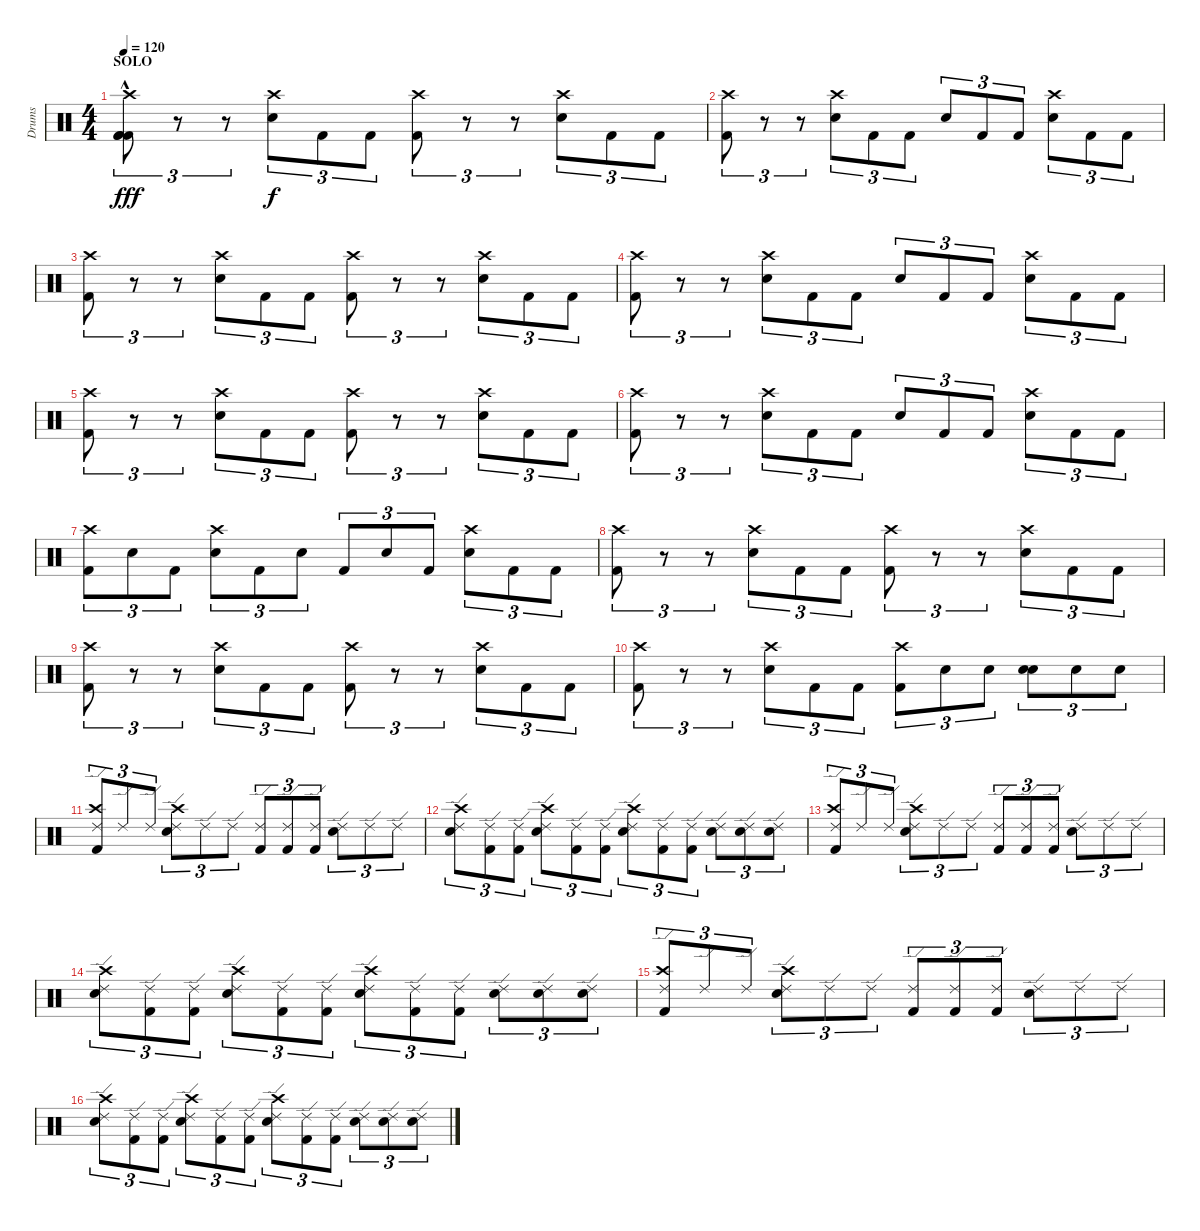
\track ("Drums" "Drums") {instrument percussion}
\staff {score}
\articulation defaults
\ts (4 4)
\section ("" "SOLO")
\tempo 120
\clef neutral
\ks c
("Kick (hit) 2"{hac} "Crash high (hit)"{hac} "Kick (hit) 2"{hac} "Kick (hit) 2"{hac}).8{tu (3 2) dy fff} r.8{tu (3 2)} r.8{tu (3 2)} ("Electric Snare (hit)" "Crash high (hit)").8{tu (3 2) dy f} "Kick (hit) 2".8{tu (3 2)} "Kick (hit) 2".8{tu (3 2)} ("Kick (hit) 2" "Crash high (hit)").8{tu (3 2)} r.8{tu (3 2)} r.8{tu (3 2)} ("Electric Snare (hit)" "Crash high (hit)").8{tu (3 2)} "Kick (hit) 2".8{tu (3 2)} "Kick (hit) 2".8{tu (3 2)} |
("Kick (hit) 2" "Crash high (hit)").8{tu (3 2)} r.8{tu (3 2)} r.8{tu (3 2)} ("Electric Snare (hit)" "Crash high (hit)").8{tu (3 2)} "Kick (hit) 2".8{tu (3 2)} "Kick (hit) 2".8{tu (3 2)} "Electric Snare (hit)".8{tu (3 2)} "Kick (hit) 2".8{tu (3 2)} "Kick (hit) 2".8{tu (3 2)} ("Electric Snare (hit)" "Crash high (hit)").8{tu (3 2)} "Kick (hit) 2".8{tu (3 2)} "Kick (hit) 2".8{tu (3 2)} |
("Kick (hit) 2" "Crash high (hit)").8{tu (3 2)} r.8{tu (3 2)} r.8{tu (3 2)} ("Electric Snare (hit)" "Crash high (hit)").8{tu (3 2)} "Kick (hit) 2".8{tu (3 2)} "Kick (hit) 2".8{tu (3 2)} ("Kick (hit) 2" "Crash high (hit)").8{tu (3 2)} r.8{tu (3 2)} r.8{tu (3 2)} ("Electric Snare (hit)" "Crash high (hit)").8{tu (3 2)} "Kick (hit) 2".8{tu (3 2)} "Kick (hit) 2".8{tu (3 2)} |
("Kick (hit) 2" "Crash high (hit)").8{tu (3 2)} r.8{tu (3 2)} r.8{tu (3 2)} ("Electric Snare (hit)" "Crash high (hit)").8{tu (3 2)} "Kick (hit) 2".8{tu (3 2)} "Kick (hit) 2".8{tu (3 2)} "Electric Snare (hit)".8{tu (3 2)} "Kick (hit) 2".8{tu (3 2)} "Kick (hit) 2".8{tu (3 2)} ("Electric Snare (hit)" "Crash high (hit)").8{tu (3 2)} "Kick (hit) 2".8{tu (3 2)} "Kick (hit) 2".8{tu (3 2)} |
("Kick (hit) 2" "Crash high (hit)").8{tu (3 2)} r.8{tu (3 2)} r.8{tu (3 2)} ("Electric Snare (hit)" "Crash high (hit)").8{tu (3 2)} "Kick (hit) 2".8{tu (3 2)} "Kick (hit) 2".8{tu (3 2)} ("Kick (hit) 2" "Crash high (hit)").8{tu (3 2)} r.8{tu (3 2)} r.8{tu (3 2)} ("Electric Snare (hit)" "Crash high (hit)").8{tu (3 2)} "Kick (hit) 2".8{tu (3 2)} "Kick (hit) 2".8{tu (3 2)} |
("Kick (hit) 2" "Crash high (hit)").8{tu (3 2)} r.8{tu (3 2)} r.8{tu (3 2)} ("Electric Snare (hit)" "Crash high (hit)").8{tu (3 2)} "Kick (hit) 2".8{tu (3 2)} "Kick (hit) 2".8{tu (3 2)} "Electric Snare (hit)".8{tu (3 2)} "Kick (hit) 2".8{tu (3 2)} "Kick (hit) 2".8{tu (3 2)} ("Electric Snare (hit)" "Crash high (hit)").8{tu (3 2)} "Kick (hit) 2".8{tu (3 2)} "Kick (hit) 2".8{tu (3 2)} |
("Kick (hit) 2" "Crash high (hit)").8{tu (3 2)} "Electric Snare (hit)".8{tu (3 2)} "Kick (hit) 2".8{tu (3 2)} ("Electric Snare (hit)" "Crash high (hit)").8{tu (3 2)} "Kick (hit) 2".8{tu (3 2)} "Electric Snare (hit)".8{tu (3 2)} "Kick (hit) 2".8{tu (3 2)} "Electric Snare (hit)".8{tu (3 2)} "Kick (hit) 2".8{tu (3 2)} ("Electric Snare (hit)" "Crash high (hit)").8{tu (3 2)} "Kick (hit) 2".8{tu (3 2)} "Kick (hit) 2".8{tu (3 2)} |
("Kick (hit) 2" "Crash high (hit)").8{tu (3 2)} r.8{tu (3 2)} r.8{tu (3 2)} ("Electric Snare (hit)" "Crash high (hit)").8{tu (3 2)} "Kick (hit) 2".8{tu (3 2)} "Kick (hit) 2".8{tu (3 2)} ("Kick (hit) 2" "Crash high (hit)").8{tu (3 2)} r.8{tu (3 2)} r.8{tu (3 2)} ("Electric Snare (hit)" "Crash high (hit)").8{tu (3 2)} "Kick (hit) 2".8{tu (3 2)} "Kick (hit) 2".8{tu (3 2)} |
("Kick (hit) 2" "Crash high (hit)").8{tu (3 2)} r.8{tu (3 2)} r.8{tu (3 2)} ("Electric Snare (hit)" "Crash high (hit)").8{tu (3 2)} "Kick (hit) 2".8{tu (3 2)} "Kick (hit) 2".8{tu (3 2)} ("Kick (hit) 2" "Crash high (hit)").8{tu (3 2)} r.8{tu (3 2)} r.8{tu (3 2)} ("Electric Snare (hit)" "Crash high (hit)").8{tu (3 2)} "Kick (hit) 2".8{tu (3 2)} "Kick (hit) 2".8{tu (3 2)} |
("Kick (hit) 2" "Crash high (hit)").8{tu (3 2)} r.8{tu (3 2)} r.8{tu (3 2)} ("Electric Snare (hit)" "Crash high (hit)").8{tu (3 2)} "Kick (hit) 2".8{tu (3 2)} "Kick (hit) 2".8{tu (3 2)} ("Kick (hit) 2" "Crash high (hit)").8{tu (3 2)} "Electric Snare (hit)".8{tu (3 2)} "Electric Snare (hit)".8{tu (3 2)} ("Electric Snare (hit)" "Electric Snare (hit)").8{tu (3 2)} "Electric Snare (hit)".8{tu (3 2)} "Electric Snare (hit)".8{tu (3 2)} |
("Ride (edge) 2" "Crash high (hit)" "Kick (hit) 2").8{tu (3 2)} "Ride (edge) 2".8{tu (3 2)} "Ride (edge) 2".8{tu (3 2)} ("Ride (edge) 2" "Crash high (hit)" "Electric Snare (hit)").8{tu (3 2)} "Ride (edge) 2".8{tu (3 2)} "Ride (edge) 2".8{tu (3 2)} ("Ride (edge) 2" "Kick (hit) 2").8{tu (3 2)} ("Ride (edge) 2" "Kick (hit) 2").8{tu (3 2)} ("Ride (edge) 2" "Kick (hit) 2").8{tu (3 2)} ("Ride (edge) 2" "Electric Snare (hit)").8{tu (3 2)} "Ride (edge) 2".8{tu (3 2)} "Ride (edge) 2".8{tu (3 2)} |
("Ride (edge) 2" "Crash high (hit)" "Electric Snare (hit)").8{tu (3 2)} ("Ride (edge) 2" "Kick (hit) 2").8{tu (3 2)} ("Ride (edge) 2" "Kick (hit) 2").8{tu (3 2)} ("Ride (edge) 2" "Crash high (hit)" "Electric Snare (hit)").8{tu (3 2)} ("Ride (edge) 2" "Kick (hit) 2").8{tu (3 2)} ("Ride (edge) 2" "Kick (hit) 2").8{tu (3 2)} ("Ride (edge) 2" "Crash high (hit)" "Electric Snare (hit)").8{tu (3 2)} ("Ride (edge) 2" "Kick (hit) 2").8{tu (3 2)} ("Ride (edge) 2" "Kick (hit) 2").8{tu (3 2)} ("Ride (edge) 2" "Electric Snare (hit)").8{tu (3 2)} ("Ride (edge) 2" "Electric Snare (hit)").8{tu (3 2)} ("Ride (edge) 2" "Electric Snare (hit)").8{tu (3 2)} |
("Ride (edge) 2" "Crash high (hit)" "Kick (hit) 2").8{tu (3 2)} "Ride (edge) 2".8{tu (3 2)} "Ride (edge) 2".8{tu (3 2)} ("Ride (edge) 2" "Crash high (hit)" "Electric Snare (hit)").8{tu (3 2)} "Ride (edge) 2".8{tu (3 2)} "Ride (edge) 2".8{tu (3 2)} ("Ride (edge) 2" "Kick (hit) 2").8{tu (3 2)} ("Ride (edge) 2" "Kick (hit) 2").8{tu (3 2)} ("Ride (edge) 2" "Kick (hit) 2").8{tu (3 2)} ("Ride (edge) 2" "Electric Snare (hit)").8{tu (3 2)} "Ride (edge) 2".8{tu (3 2)} "Ride (edge) 2".8{tu (3 2)} |
("Ride (edge) 2" "Crash high (hit)" "Electric Snare (hit)").8{tu (3 2)} ("Ride (edge) 2" "Kick (hit) 2").8{tu (3 2)} ("Ride (edge) 2" "Kick (hit) 2").8{tu (3 2)} ("Ride (edge) 2" "Crash high (hit)" "Electric Snare (hit)").8{tu (3 2)} ("Ride (edge) 2" "Kick (hit) 2").8{tu (3 2)} ("Ride (edge) 2" "Kick (hit) 2").8{tu (3 2)} ("Ride (edge) 2" "Crash high (hit)" "Electric Snare (hit)").8{tu (3 2)} ("Ride (edge) 2" "Kick (hit) 2").8{tu (3 2)} ("Ride (edge) 2" "Kick (hit) 2").8{tu (3 2)} ("Ride (edge) 2" "Electric Snare (hit)").8{tu (3 2)} ("Ride (edge) 2" "Electric Snare (hit)").8{tu (3 2)} ("Ride (edge) 2" "Electric Snare (hit)").8{tu (3 2)} |
("Ride (edge) 2" "Crash high (hit)" "Kick (hit) 2").8{tu (3 2)} "Ride (edge) 2".8{tu (3 2)} "Ride (edge) 2".8{tu (3 2)} ("Ride (edge) 2" "Crash high (hit)" "Electric Snare (hit)").8{tu (3 2)} "Ride (edge) 2".8{tu (3 2)} "Ride (edge) 2".8{tu (3 2)} ("Ride (edge) 2" "Kick (hit) 2").8{tu (3 2)} ("Ride (edge) 2" "Kick (hit) 2").8{tu (3 2)} ("Ride (edge) 2" "Kick (hit) 2").8{tu (3 2)} ("Ride (edge) 2" "Electric Snare (hit)").8{tu (3 2)} "Ride (edge) 2".8{tu (3 2)} "Ride (edge) 2".8{tu (3 2)} |
("Ride (edge) 2" "Crash high (hit)" "Electric Snare (hit)").8{tu (3 2)} ("Ride (edge) 2" "Kick (hit) 2").8{tu (3 2)} ("Ride (edge) 2" "Kick (hit) 2").8{tu (3 2)} ("Ride (edge) 2" "Crash high (hit)" "Electric Snare (hit)").8{tu (3 2)} ("Ride (edge) 2" "Kick (hit) 2").8{tu (3 2)} ("Ride (edge) 2" "Kick (hit) 2").8{tu (3 2)} ("Ride (edge) 2" "Crash high (hit)" "Electric Snare (hit)").8{tu (3 2)} ("Ride (edge) 2" "Kick (hit) 2").8{tu (3 2)} ("Ride (edge) 2" "Kick (hit) 2").8{tu (3 2)} ("Ride (edge) 2" "Electric Snare (hit)").8{tu (3 2)} ("Ride (edge) 2" "Electric Snare (hit)").8{tu (3 2)} ("Ride (edge) 2" "Electric Snare (hit)").8{tu (3 2)}
